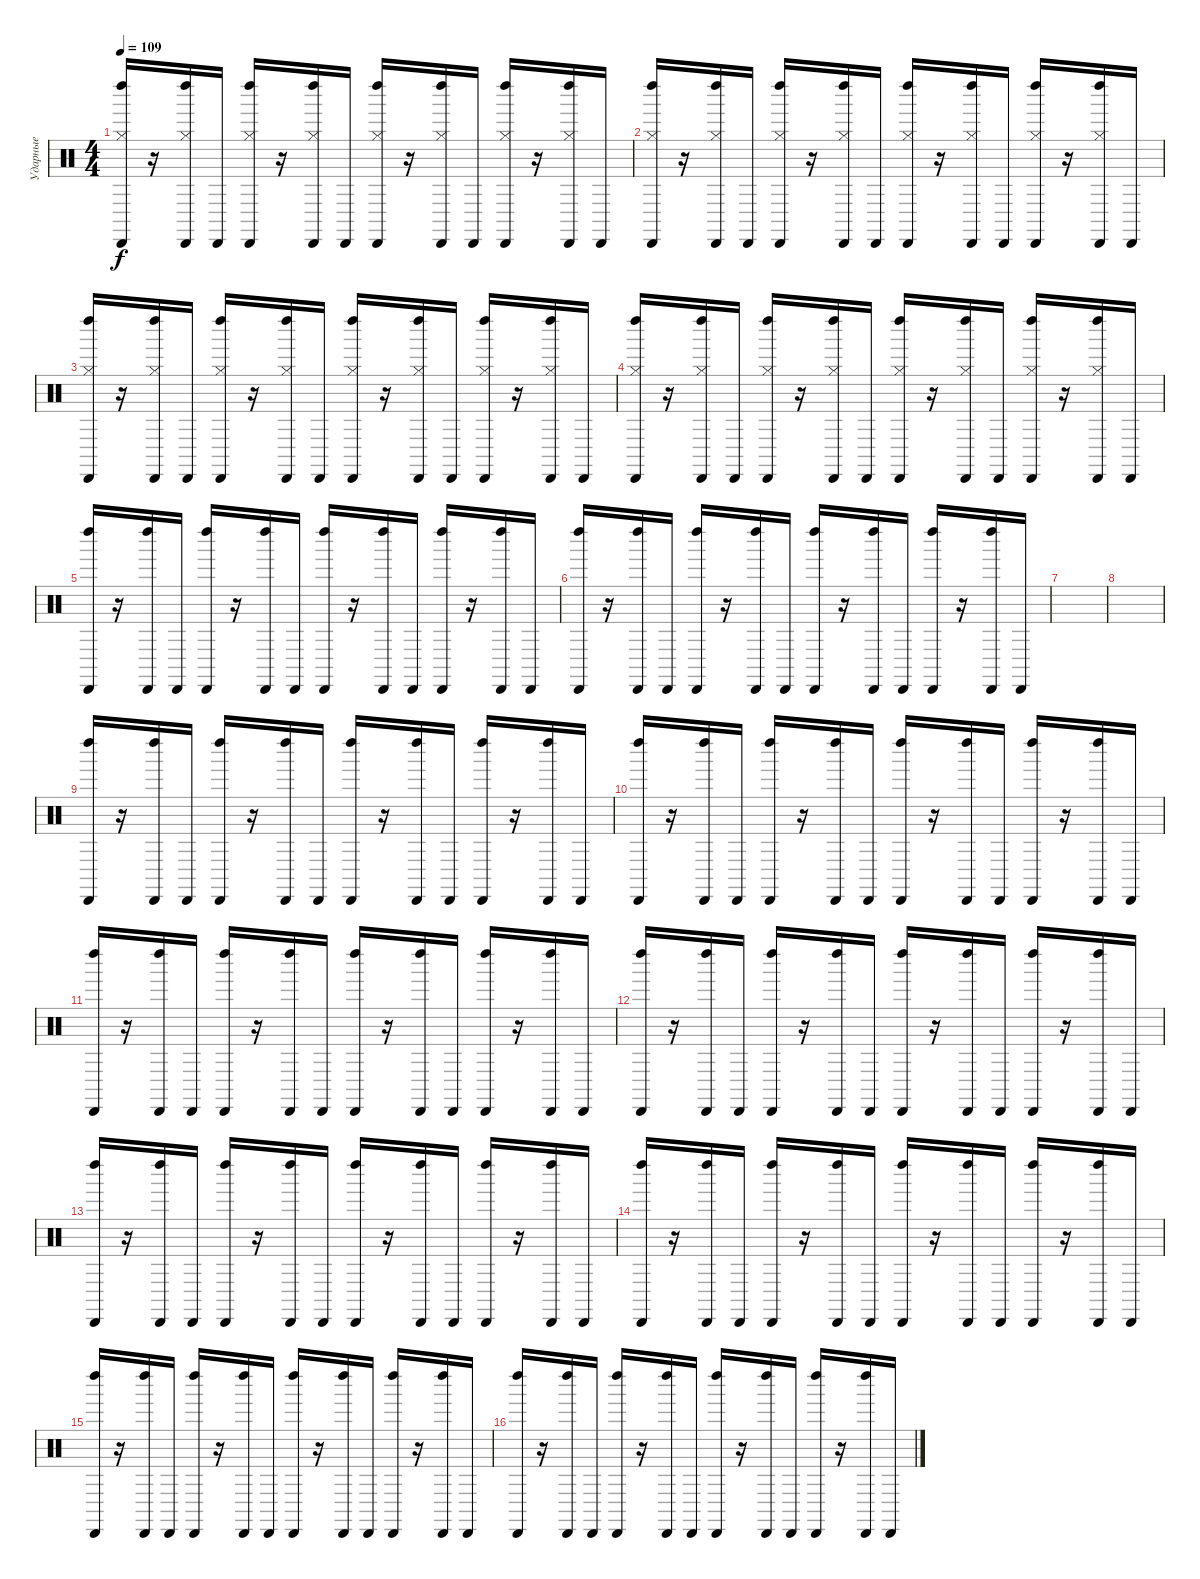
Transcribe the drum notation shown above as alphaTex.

\track ("Ударные" "Ударные") {instrument percussion}
\staff {score}
\articulation defaults
\ts (4 4)
\tempo 109
\clef neutral
\ks c
("Left Maraca (hit)" "Cabasa (hit)" "Hi-Hat (closed)").16{dy f} r.16 ("Left Maraca (hit)" "Cabasa (hit)" "Hi-Hat (closed)").16 "Cabasa (hit)".16 ("Left Maraca (hit)" "Cabasa (hit)" "Hi-Hat (closed)").16 r.16 ("Left Maraca (hit)" "Cabasa (hit)" "Hi-Hat (closed)").16 "Cabasa (hit)".16 ("Left Maraca (hit)" "Cabasa (hit)" "Hi-Hat (closed)").16 r.16 ("Left Maraca (hit)" "Cabasa (hit)" "Hi-Hat (closed)").16 "Cabasa (hit)".16 ("Left Maraca (hit)" "Cabasa (hit)" "Hi-Hat (closed)").16 r.16 ("Left Maraca (hit)" "Cabasa (hit)" "Hi-Hat (closed)").16 "Cabasa (hit)".16 |
("Left Maraca (hit)" "Cabasa (hit)" "Hi-Hat (closed)").16 r.16 ("Left Maraca (hit)" "Cabasa (hit)" "Hi-Hat (closed)").16 "Cabasa (hit)".16 ("Left Maraca (hit)" "Cabasa (hit)" "Hi-Hat (closed)").16 r.16 ("Left Maraca (hit)" "Cabasa (hit)" "Hi-Hat (closed)").16 "Cabasa (hit)".16 ("Left Maraca (hit)" "Cabasa (hit)" "Hi-Hat (closed)").16 r.16 ("Left Maraca (hit)" "Cabasa (hit)" "Hi-Hat (closed)").16 "Cabasa (hit)".16 ("Left Maraca (hit)" "Cabasa (hit)" "Hi-Hat (closed)").16 r.16 ("Left Maraca (hit)" "Cabasa (hit)" "Hi-Hat (closed)").16 "Cabasa (hit)".16 |
("Left Maraca (hit)" "Cabasa (hit)" "Hi-Hat (closed)").16 r.16 ("Left Maraca (hit)" "Cabasa (hit)" "Hi-Hat (closed)").16 "Cabasa (hit)".16 ("Left Maraca (hit)" "Cabasa (hit)" "Hi-Hat (closed)").16 r.16 ("Left Maraca (hit)" "Cabasa (hit)" "Hi-Hat (closed)").16 "Cabasa (hit)".16 ("Left Maraca (hit)" "Cabasa (hit)" "Hi-Hat (closed)").16 r.16 ("Left Maraca (hit)" "Cabasa (hit)" "Hi-Hat (closed)").16 "Cabasa (hit)".16 ("Left Maraca (hit)" "Cabasa (hit)" "Hi-Hat (closed)").16 r.16 ("Left Maraca (hit)" "Cabasa (hit)" "Hi-Hat (closed)").16 "Cabasa (hit)".16 |
("Left Maraca (hit)" "Cabasa (hit)" "Hi-Hat (closed)").16 r.16 ("Left Maraca (hit)" "Cabasa (hit)" "Hi-Hat (closed)").16 "Cabasa (hit)".16 ("Left Maraca (hit)" "Cabasa (hit)" "Hi-Hat (closed)").16 r.16 ("Left Maraca (hit)" "Cabasa (hit)" "Hi-Hat (closed)").16 "Cabasa (hit)".16 ("Left Maraca (hit)" "Cabasa (hit)" "Hi-Hat (closed)").16 r.16 ("Left Maraca (hit)" "Cabasa (hit)" "Hi-Hat (closed)").16 "Cabasa (hit)".16 ("Left Maraca (hit)" "Cabasa (hit)" "Hi-Hat (closed)").16 r.16 ("Left Maraca (hit)" "Cabasa (hit)" "Hi-Hat (closed)").16 "Cabasa (hit)".16 |
("Left Maraca (hit)" "Cabasa (hit)").16 r.16 ("Left Maraca (hit)" "Cabasa (hit)").16 "Cabasa (hit)".16 ("Left Maraca (hit)" "Cabasa (hit)").16 r.16 ("Left Maraca (hit)" "Cabasa (hit)").16 "Cabasa (hit)".16 ("Left Maraca (hit)" "Cabasa (hit)").16 r.16 ("Left Maraca (hit)" "Cabasa (hit)").16 "Cabasa (hit)".16 ("Left Maraca (hit)" "Cabasa (hit)").16 r.16 ("Left Maraca (hit)" "Cabasa (hit)").16 "Cabasa (hit)".16 |
("Left Maraca (hit)" "Cabasa (hit)").16 r.16 ("Left Maraca (hit)" "Cabasa (hit)").16 "Cabasa (hit)".16 ("Left Maraca (hit)" "Cabasa (hit)").16 r.16 ("Left Maraca (hit)" "Cabasa (hit)").16 "Cabasa (hit)".16 ("Left Maraca (hit)" "Cabasa (hit)").16 r.16 ("Left Maraca (hit)" "Cabasa (hit)").16 "Cabasa (hit)".16 ("Left Maraca (hit)" "Cabasa (hit)").16 r.16 ("Left Maraca (hit)" "Cabasa (hit)").16 "Cabasa (hit)".16 |
|
|
("Left Maraca (hit)" "Cabasa (hit)").16 r.16 ("Left Maraca (hit)" "Cabasa (hit)").16 "Cabasa (hit)".16 ("Left Maraca (hit)" "Cabasa (hit)").16 r.16 ("Left Maraca (hit)" "Cabasa (hit)").16 "Cabasa (hit)".16 ("Left Maraca (hit)" "Cabasa (hit)").16 r.16 ("Left Maraca (hit)" "Cabasa (hit)").16 "Cabasa (hit)".16 ("Left Maraca (hit)" "Cabasa (hit)").16 r.16 ("Left Maraca (hit)" "Cabasa (hit)").16 "Cabasa (hit)".16 |
("Left Maraca (hit)" "Cabasa (hit)").16 r.16 ("Left Maraca (hit)" "Cabasa (hit)").16 "Cabasa (hit)".16 ("Left Maraca (hit)" "Cabasa (hit)").16 r.16 ("Left Maraca (hit)" "Cabasa (hit)").16 "Cabasa (hit)".16 ("Left Maraca (hit)" "Cabasa (hit)").16 r.16 ("Left Maraca (hit)" "Cabasa (hit)").16 "Cabasa (hit)".16 ("Left Maraca (hit)" "Cabasa (hit)").16 r.16 ("Left Maraca (hit)" "Cabasa (hit)").16 "Cabasa (hit)".16 |
("Left Maraca (hit)" "Cabasa (hit)").16 r.16 ("Left Maraca (hit)" "Cabasa (hit)").16 "Cabasa (hit)".16 ("Left Maraca (hit)" "Cabasa (hit)").16 r.16 ("Left Maraca (hit)" "Cabasa (hit)").16 "Cabasa (hit)".16 ("Left Maraca (hit)" "Cabasa (hit)").16 r.16 ("Left Maraca (hit)" "Cabasa (hit)").16 "Cabasa (hit)".16 ("Left Maraca (hit)" "Cabasa (hit)").16 r.16 ("Left Maraca (hit)" "Cabasa (hit)").16 "Cabasa (hit)".16 |
("Left Maraca (hit)" "Cabasa (hit)").16 r.16 ("Left Maraca (hit)" "Cabasa (hit)").16 "Cabasa (hit)".16 ("Left Maraca (hit)" "Cabasa (hit)").16 r.16 ("Left Maraca (hit)" "Cabasa (hit)").16 "Cabasa (hit)".16 ("Left Maraca (hit)" "Cabasa (hit)").16 r.16 ("Left Maraca (hit)" "Cabasa (hit)").16 "Cabasa (hit)".16 ("Left Maraca (hit)" "Cabasa (hit)").16 r.16 ("Left Maraca (hit)" "Cabasa (hit)").16 "Cabasa (hit)".16 |
("Left Maraca (hit)" "Cabasa (hit)").16 r.16 ("Left Maraca (hit)" "Cabasa (hit)").16 "Cabasa (hit)".16 ("Left Maraca (hit)" "Cabasa (hit)").16 r.16 ("Left Maraca (hit)" "Cabasa (hit)").16 "Cabasa (hit)".16 ("Left Maraca (hit)" "Cabasa (hit)").16 r.16 ("Left Maraca (hit)" "Cabasa (hit)").16 "Cabasa (hit)".16 ("Left Maraca (hit)" "Cabasa (hit)").16 r.16 ("Left Maraca (hit)" "Cabasa (hit)").16 "Cabasa (hit)".16 |
("Left Maraca (hit)" "Cabasa (hit)").16 r.16 ("Left Maraca (hit)" "Cabasa (hit)").16 "Cabasa (hit)".16 ("Left Maraca (hit)" "Cabasa (hit)").16 r.16 ("Left Maraca (hit)" "Cabasa (hit)").16 "Cabasa (hit)".16 ("Left Maraca (hit)" "Cabasa (hit)").16 r.16 ("Left Maraca (hit)" "Cabasa (hit)").16 "Cabasa (hit)".16 ("Left Maraca (hit)" "Cabasa (hit)").16 r.16 ("Left Maraca (hit)" "Cabasa (hit)").16 "Cabasa (hit)".16 |
("Left Maraca (hit)" "Cabasa (hit)").16 r.16 ("Left Maraca (hit)" "Cabasa (hit)").16 "Cabasa (hit)".16 ("Left Maraca (hit)" "Cabasa (hit)").16 r.16 ("Left Maraca (hit)" "Cabasa (hit)").16 "Cabasa (hit)".16 ("Left Maraca (hit)" "Cabasa (hit)").16 r.16 ("Left Maraca (hit)" "Cabasa (hit)").16 "Cabasa (hit)".16 ("Left Maraca (hit)" "Cabasa (hit)").16 r.16 ("Left Maraca (hit)" "Cabasa (hit)").16 "Cabasa (hit)".16 |
("Left Maraca (hit)" "Cabasa (hit)").16 r.16 ("Left Maraca (hit)" "Cabasa (hit)").16 "Cabasa (hit)".16 ("Left Maraca (hit)" "Cabasa (hit)").16 r.16 ("Left Maraca (hit)" "Cabasa (hit)").16 "Cabasa (hit)".16 ("Left Maraca (hit)" "Cabasa (hit)").16 r.16 ("Left Maraca (hit)" "Cabasa (hit)").16 "Cabasa (hit)".16 ("Left Maraca (hit)" "Cabasa (hit)").16 r.16 ("Left Maraca (hit)" "Cabasa (hit)").16 "Cabasa (hit)".16
